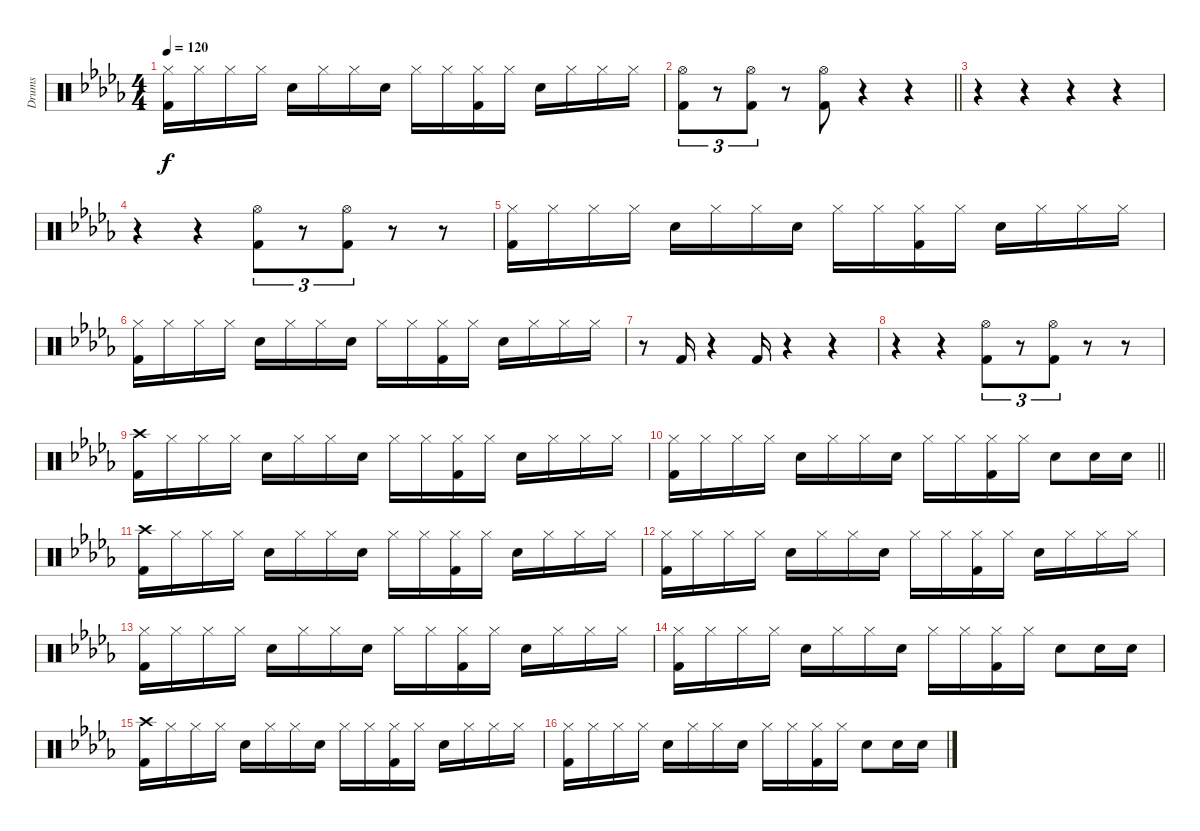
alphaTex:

\track ("Drums" "Drums") {instrument percussion}
\staff {score}
\articulation defaults
\ts (4 4)
\tempo 120
\clef neutral
\ks db
("Hi-Hat (closed)" "Kick (hit) 2").16{txt "" dy f} "Hi-Hat (closed)".16 "Hi-Hat (closed)".16 "Hi-Hat (closed)".16 "Snare (hit) 2".16 "Hi-Hat (closed)".16 "Hi-Hat (closed)".16 "Snare (hit) 2".16 "Hi-Hat (closed)".16 "Hi-Hat (closed)".16 ("Hi-Hat (closed)" "Kick (hit) 2").16 "Hi-Hat (closed)".16 "Snare (hit) 2".16 "Hi-Hat (closed)".16 "Hi-Hat (closed)".16 "Hi-Hat (closed)".16 |
\barLineRight lightlight
("Hi-Hat (open)" "Kick (hit) 2").8{tu (3 2)} r.8{tu (3 2)} ("Hi-Hat (open)" "Kick (hit) 2").8{tu (3 2)} r.8 ("Hi-Hat (open)" "Kick (hit) 2").8 r.4 r.4 |
r.4 r.4 r.4 r.4 |
r.4 r.4 ("Hi-Hat (open)" "Kick (hit) 2").8{tu (3 2)} r.8{tu (3 2)} ("Hi-Hat (open)" "Kick (hit) 2").8{tu (3 2)} r.8 r.8 |
("Hi-Hat (closed)" "Kick (hit) 2").16 "Hi-Hat (closed)".16 "Hi-Hat (closed)".16 "Hi-Hat (closed)".16 "Snare (hit) 2".16 "Hi-Hat (closed)".16 "Hi-Hat (closed)".16 "Snare (hit) 2".16 "Hi-Hat (closed)".16 "Hi-Hat (closed)".16 ("Hi-Hat (closed)" "Kick (hit) 2").16 "Hi-Hat (closed)".16 "Snare (hit) 2".16 "Hi-Hat (closed)".16 "Hi-Hat (closed)".16 "Hi-Hat (closed)".16 |
("Hi-Hat (closed)" "Kick (hit) 2").16 "Hi-Hat (closed)".16 "Hi-Hat (closed)".16 "Hi-Hat (closed)".16 "Snare (hit) 2".16 "Hi-Hat (closed)".16 "Hi-Hat (closed)".16 "Snare (hit) 2".16 "Hi-Hat (closed)".16 "Hi-Hat (closed)".16 ("Hi-Hat (closed)" "Kick (hit) 2").16 "Hi-Hat (closed)".16 "Snare (hit) 2".16 "Hi-Hat (closed)".16 "Hi-Hat (closed)".16 "Hi-Hat (closed)".16 |
r.8 "Kick (hit) 2".16 r.4 "Kick (hit) 2".16 r.4 r.4 |
r.4 r.4 ("Hi-Hat (open)" "Kick (hit) 2").8{tu (3 2)} r.8{tu (3 2)} ("Hi-Hat (open)" "Kick (hit) 2").8{tu (3 2)} r.8 r.8 |
("Crash high (hit)" "Kick (hit) 2").16 "Hi-Hat (closed)".16 "Hi-Hat (closed)".16 "Hi-Hat (closed)".16 "Snare (hit) 2".16 "Hi-Hat (closed)".16 "Hi-Hat (closed)".16 "Snare (hit) 2".16 "Hi-Hat (closed)".16 "Hi-Hat (closed)".16 ("Hi-Hat (closed)" "Kick (hit) 2").16 "Hi-Hat (closed)".16 "Snare (hit) 2".16 "Hi-Hat (closed)".16 "Hi-Hat (closed)".16 "Hi-Hat (closed)".16 |
\barLineRight lightlight
("Hi-Hat (closed)" "Kick (hit) 2").16 "Hi-Hat (closed)".16 "Hi-Hat (closed)".16 "Hi-Hat (closed)".16 "Snare (hit) 2".16 "Hi-Hat (closed)".16 "Hi-Hat (closed)".16 "Snare (hit) 2".16 "Hi-Hat (closed)".16 "Hi-Hat (closed)".16 ("Hi-Hat (closed)" "Kick (hit) 2").16 "Hi-Hat (closed)".16 "Snare (hit) 2".8 "Snare (hit) 2".16 "Snare (hit) 2".16 |
("Crash high (hit)" "Kick (hit) 2").16 "Hi-Hat (closed)".16 "Hi-Hat (closed)".16 "Hi-Hat (closed)".16 "Snare (hit) 2".16 "Hi-Hat (closed)".16 "Hi-Hat (closed)".16 "Snare (hit) 2".16 "Hi-Hat (closed)".16 "Hi-Hat (closed)".16 ("Hi-Hat (closed)" "Kick (hit) 2").16 "Hi-Hat (closed)".16 "Snare (hit) 2".16 "Hi-Hat (closed)".16 "Hi-Hat (closed)".16 "Hi-Hat (closed)".16 |
("Hi-Hat (closed)" "Kick (hit) 2").16 "Hi-Hat (closed)".16 "Hi-Hat (closed)".16 "Hi-Hat (closed)".16 "Snare (hit) 2".16 "Hi-Hat (closed)".16 "Hi-Hat (closed)".16 "Snare (hit) 2".16 "Hi-Hat (closed)".16 "Hi-Hat (closed)".16 ("Hi-Hat (closed)" "Kick (hit) 2").16 "Hi-Hat (closed)".16 "Snare (hit) 2".16 "Hi-Hat (closed)".16 "Hi-Hat (closed)".16 "Hi-Hat (closed)".16 |
("Hi-Hat (closed)" "Kick (hit) 2").16 "Hi-Hat (closed)".16 "Hi-Hat (closed)".16 "Hi-Hat (closed)".16 "Snare (hit) 2".16 "Hi-Hat (closed)".16 "Hi-Hat (closed)".16 "Snare (hit) 2".16 "Hi-Hat (closed)".16 "Hi-Hat (closed)".16 ("Hi-Hat (closed)" "Kick (hit) 2").16 "Hi-Hat (closed)".16 "Snare (hit) 2".16 "Hi-Hat (closed)".16 "Hi-Hat (closed)".16 "Hi-Hat (closed)".16 |
("Hi-Hat (closed)" "Kick (hit) 2").16 "Hi-Hat (closed)".16 "Hi-Hat (closed)".16 "Hi-Hat (closed)".16 "Snare (hit) 2".16 "Hi-Hat (closed)".16 "Hi-Hat (closed)".16 "Snare (hit) 2".16 "Hi-Hat (closed)".16 "Hi-Hat (closed)".16 ("Hi-Hat (closed)" "Kick (hit) 2").16 "Hi-Hat (closed)".16 "Snare (hit) 2".8 "Snare (hit) 2".16 "Snare (hit) 2".16 |
("Crash high (hit)" "Kick (hit) 2").16 "Hi-Hat (closed)".16 "Hi-Hat (closed)".16 "Hi-Hat (closed)".16 "Snare (hit) 2".16 "Hi-Hat (closed)".16 "Hi-Hat (closed)".16 "Snare (hit) 2".16 "Hi-Hat (closed)".16 "Hi-Hat (closed)".16 ("Hi-Hat (closed)" "Kick (hit) 2").16 "Hi-Hat (closed)".16 "Snare (hit) 2".16 "Hi-Hat (closed)".16 "Hi-Hat (closed)".16 "Hi-Hat (closed)".16 |
("Hi-Hat (closed)" "Kick (hit) 2").16 "Hi-Hat (closed)".16 "Hi-Hat (closed)".16 "Hi-Hat (closed)".16 "Snare (hit) 2".16 "Hi-Hat (closed)".16 "Hi-Hat (closed)".16 "Snare (hit) 2".16 "Hi-Hat (closed)".16 "Hi-Hat (closed)".16 ("Hi-Hat (closed)" "Kick (hit) 2").16 "Hi-Hat (closed)".16 "Snare (hit) 2".8 "Snare (hit) 2".16 "Snare (hit) 2".16
